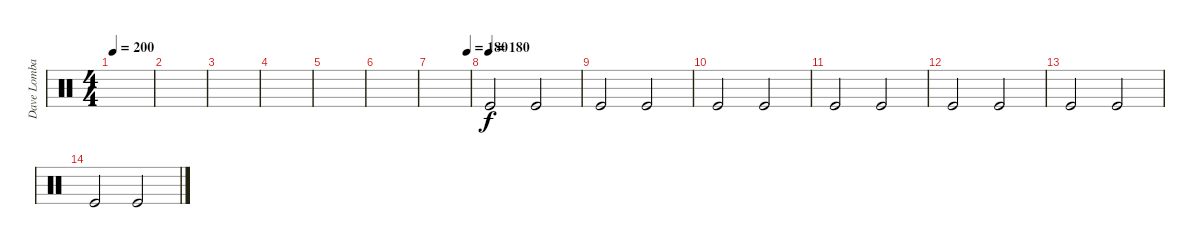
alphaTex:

\track ("Dave Lombardo" "Dave Lomba") {instrument percussion}
\staff {score}
\articulation defaults
\ts (4 4)
\tempo 200
\clef neutral
\ks c
|
|
|
|
|
|
\tempo (180 0.9375)
|
\tempo (180)
"Kick (hit)".2 "Kick (hit)".2 |
"Kick (hit)".2 "Kick (hit)".2 |
"Kick (hit)".2 "Kick (hit)".2 |
"Kick (hit)".2 "Kick (hit)".2 |
"Kick (hit)".2 "Kick (hit)".2 |
"Kick (hit)".2 "Kick (hit)".2 |
"Kick (hit)".2 "Kick (hit)".2
